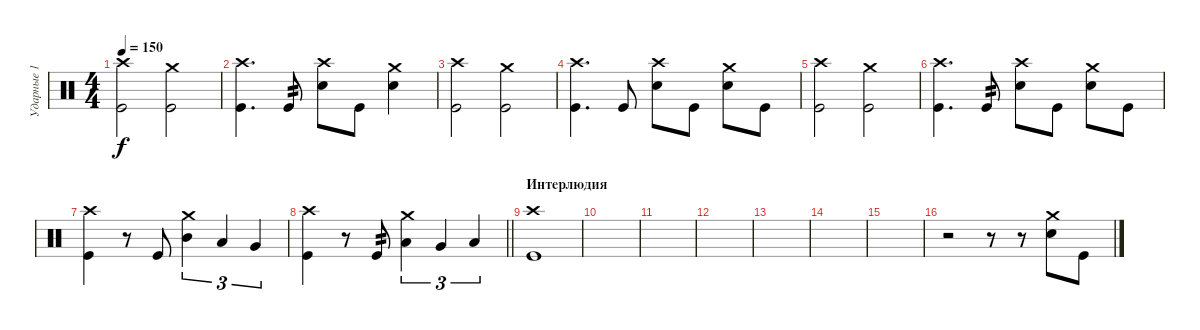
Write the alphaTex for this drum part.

\track ("Ударные 1" "Ударные 1") {instrument percussion}
\staff {score}
\articulation defaults
\ts (4 4)
\tempo 150
\clef neutral
\ks c
("Crash high (hit)" "Kick (hit)").2{dy f} ("Crash medium (hit)" "Kick (hit)").2 |
("Crash high (hit)" "Kick (hit)").4{d} "Kick (hit)".8{tp 2} ("Crash high (hit)" "Electric Snare (hit)").8 "Kick (hit)".8 ("Crash medium (hit)" "Electric Snare (hit)").4 |
("Crash high (hit)" "Kick (hit)").2 ("Crash medium (hit)" "Kick (hit)").2 |
("Crash high (hit)" "Kick (hit)").4{d} "Kick (hit)".8 ("Crash high (hit)" "Electric Snare (hit)").8 "Kick (hit)".8 ("Crash medium (hit)" "Electric Snare (hit)").8 "Kick (hit)".8 |
("Crash high (hit)" "Kick (hit)").2 ("Crash medium (hit)" "Kick (hit)").2 |
("Crash high (hit)" "Kick (hit)").4{d} "Kick (hit)".8{tp 2} ("Crash high (hit)" "Electric Snare (hit)").8 "Kick (hit)".8 ("Crash medium (hit)" "Electric Snare (hit)").8 "Kick (hit)".8 |
("Crash high (hit)" "Kick (hit)").4 r.8 "Kick (hit)".8 ("Crash medium (hit)" "Mid Tom (hit)").4{tu (3 2)} "Low Tom (hit)".4{tu (3 2)} "Very Low Tom (hit)".4{tu (3 2)} |
\barLineRight lightlight
("Crash high (hit)" "Kick (hit)").4 r.8 "Kick (hit)".8{tp 2} ("Crash medium (hit)" "Low Tom (hit)").4{tu (3 2)} "Very Low Tom (hit)".4{tu (3 2)} "Low Floor Tom (hit)".4{tu (3 2)} |
\section ("" "Интерлюдия")
("Crash high (hit)" "Kick (hit)").1 |
|
|
|
|
|
|
r.2 r.8 r.8 ("Crash medium (hit)" "Snare (hit) 2").8 "Kick (hit)".8
